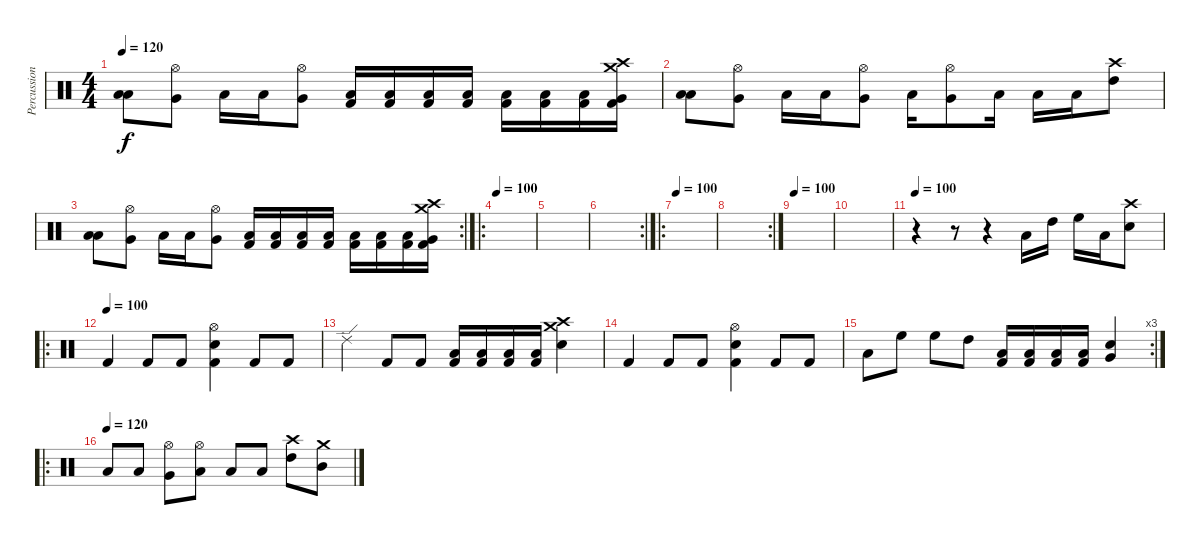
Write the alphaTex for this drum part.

\track ("Percussion" "Percussion") {instrument percussion}
\staff {score}
\articulation defaults
\ts (4 4)
\tempo 120
\clef neutral
\ks c
("Low Floor Tom (hit)" "Low Floor Tom (hit)").8{dy f} ("Very Low Tom (hit)" "Hi-Hat (open)").8 "Low Floor Tom (hit)".16 "Low Floor Tom (hit)".16 ("Very Low Tom (hit)" "Hi-Hat (open)").8 ("Low Floor Tom (hit)" "Kick (hit) 2").16 ("Low Floor Tom (hit)" "Kick (hit) 2").16 ("Low Floor Tom (hit)" "Kick (hit) 2").16 ("Low Floor Tom (hit)" "Kick (hit) 2").16 ("Low Floor Tom (hit)" "Kick (hit) 2").16 ("Low Floor Tom (hit)" "Kick (hit) 2").16 ("Low Floor Tom (hit)" "Kick (hit) 2").16 ("Very Low Tom (hit)" "Kick (hit) 2" "Crash high (hit)" "Crash medium (hit)").16 |
("Low Floor Tom (hit)" "Low Floor Tom (hit)").8 ("Very Low Tom (hit)" "Hi-Hat (open)").8 "Low Floor Tom (hit)".16 "Low Floor Tom (hit)".16 ("Very Low Tom (hit)" "Hi-Hat (open)").8 "Low Floor Tom (hit)".16 ("Very Low Tom (hit)" "Hi-Hat (open)").8 "Low Floor Tom (hit)".16 "Low Floor Tom (hit)".16 "Low Floor Tom (hit)".16 ("Crash high (hit)" "High Tom (hit)").8 |
\rc 2
("Low Floor Tom (hit)" "Low Floor Tom (hit)").8 ("Very Low Tom (hit)" "Hi-Hat (open)").8 "Low Floor Tom (hit)".16 "Low Floor Tom (hit)".16 ("Very Low Tom (hit)" "Hi-Hat (open)").8 ("Low Floor Tom (hit)" "Kick (hit) 2").16 ("Low Floor Tom (hit)" "Kick (hit) 2").16 ("Low Floor Tom (hit)" "Kick (hit) 2").16 ("Low Floor Tom (hit)" "Kick (hit) 2").16 ("Low Floor Tom (hit)" "Kick (hit) 2").16 ("Low Floor Tom (hit)" "Kick (hit) 2").16 ("Low Floor Tom (hit)" "Kick (hit) 2").16 ("Very Low Tom (hit)" "Kick (hit) 2" "Crash high (hit)" "Crash medium (hit)").16 |
\ro
\tempo 100
|
|
\rc 2
|
\ro
\tempo 100
|
\rc 2
|
\tempo 100
|
|
\tempo 100
r.4 r.8 r.4 "Low Tom (hit)".16 "High Tom (hit)".16 "High Floor Tom (hit)".16 "Low Tom (hit)".16 ("Crash high (hit)" "Electric Snare (hit)").8 |
\ro
\tempo (100)
"Kick (hit) 2".4 "Kick (hit) 2".8 "Kick (hit) 2".8 ("Hi-Hat (open)" "Snare (hit) 2" "Kick (hit) 2").4 "Kick (hit) 2".8 "Kick (hit) 2".8 |
"Ride (edge) 2".4 "Kick (hit) 2".8 "Kick (hit) 2".8 ("Low Tom (hit)" "Kick (hit) 2").16 ("Low Tom (hit)" "Kick (hit) 2").16 ("Low Tom (hit)" "Kick (hit) 2").16 ("Low Tom (hit)" "Kick (hit) 2").16 ("Crash high (hit)" "Crash medium (hit)" "Electric Snare (hit)").4 |
"Kick (hit) 2".4 "Kick (hit) 2".8 "Kick (hit) 2".8 ("Hi-Hat (open)" "Snare (hit) 2" "Kick (hit) 2").4 "Kick (hit) 2".8 "Kick (hit) 2".8 |
\rc 3 "Low Floor Tom (hit)".8 "High Floor Tom (hit)".8 "High Floor Tom (hit)".8 "High Tom (hit)".8
("Low Tom (hit)" "Kick (hit) 2").16 ("Low Tom (hit)" "Kick (hit) 2").16 ("Low Tom (hit)" "Kick (hit) 2").16 ("Low Tom (hit)" "Kick (hit) 2").16 ("Very Low Tom (hit)" "Electric Snare (hit)").4 |
\ro
\tempo (120)
"Low Floor Tom (hit)".8 "Low Floor Tom (hit)".8 ("Very Low Tom (hit)" "Hi-Hat (open)").8 ("Low Tom (hit)" "Hi-Hat (open)").8 "Low Floor Tom (hit)".8 "Low Floor Tom (hit)".8 ("High Tom (hit)" "Crash high (hit)").8 ("Mid Tom (hit)" "Crash medium (hit)").8
